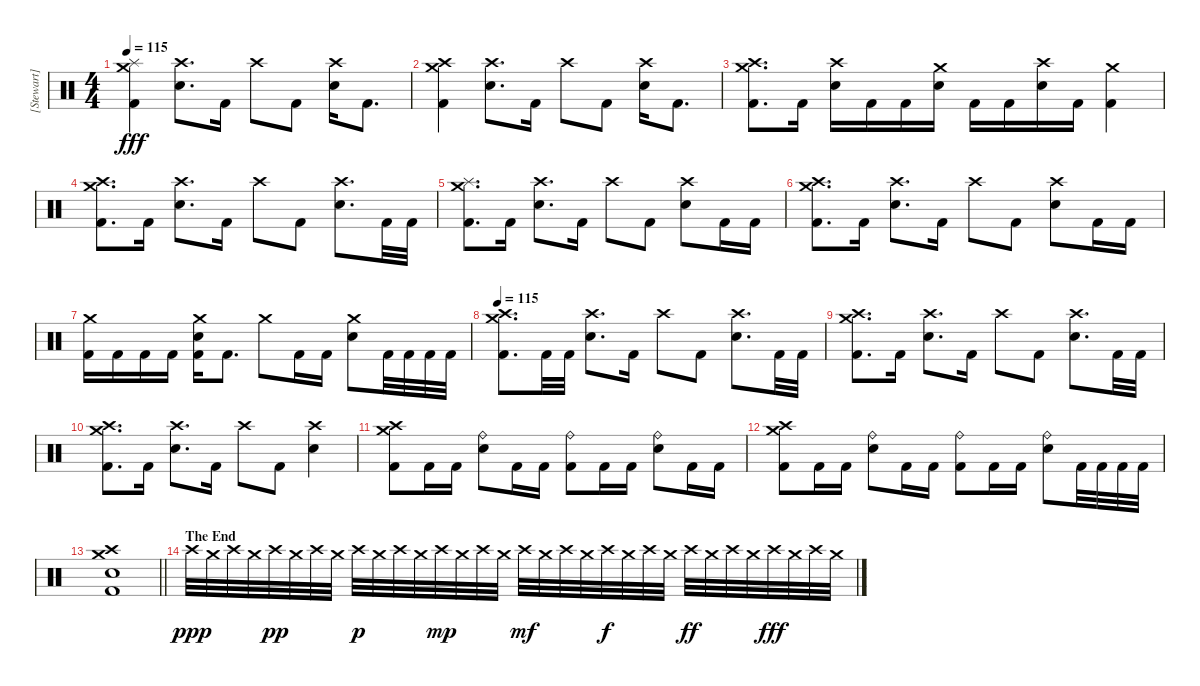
\track ("[Stewart] Drums " "[Stewart] ") {instrument percussion}
\staff {score}
\articulation defaults
\ts (4 4)
\tempo 115
\clef neutral
\ks c
("Crash medium (hit)" "Splash (hit)" "Kick (hit) 2").4{dy fff} ("Crash high (hit)" "Electric Snare (hit)").8{d} "Kick (hit) 2".16 "Crash high (hit)".8 "Kick (hit) 2".8 ("Crash high (hit)" "Electric Snare (hit)").16 "Kick (hit) 2".8{d} |
("Crash medium (hit)" "Crash high (hit)" "Kick (hit) 2").4 ("Crash high (hit)" "Electric Snare (hit)").8{d} "Kick (hit) 2".16 "Crash high (hit)".8 "Kick (hit) 2".8 ("Crash high (hit)" "Electric Snare (hit)").16 "Kick (hit) 2".8{d} |
("Crash medium (hit)" "Crash high (hit)" "Kick (hit) 2").8{d} "Kick (hit) 2".16 ("Crash high (hit)" "Electric Snare (hit)").16 "Kick (hit) 2".16 "Kick (hit) 2".16 ("Crash medium (hit)" "Electric Snare (hit)").16 "Kick (hit) 2".16 "Kick (hit) 2".16 ("Crash high (hit)" "Electric Snare (hit)").16 "Kick (hit) 2".16 ("Crash medium (hit)" "Kick (hit) 2").4 |
("Crash medium (hit)" "Crash high (hit)" "Kick (hit) 2").8{d} "Kick (hit) 2".16 ("Crash high (hit)" "Electric Snare (hit)").8{d} "Kick (hit) 2".16 "Crash high (hit)".8 "Kick (hit) 2".8 ("Crash high (hit)" "Electric Snare (hit)").8{d} "Kick (hit) 2".32 "Kick (hit) 2".32 |
("Crash medium (hit)" "Splash (hit)" "Kick (hit) 2").8{d} "Kick (hit) 2".16 ("Crash high (hit)" "Electric Snare (hit)").8{d} "Kick (hit) 2".16 "Crash high (hit)".8 "Kick (hit) 2".8 ("Crash high (hit)" "Electric Snare (hit)").8 "Kick (hit) 2".16 "Kick (hit) 2".16 |
("Crash medium (hit)" "Crash high (hit)" "Kick (hit) 2").8{d} "Kick (hit) 2".16 ("Crash high (hit)" "Electric Snare (hit)").8{d} "Kick (hit) 2".16 "Crash high (hit)".8 "Kick (hit) 2".8 ("Crash high (hit)" "Electric Snare (hit)").8 "Kick (hit) 2".16 "Kick (hit) 2".16 |
("Crash medium (hit)" "Kick (hit) 2").16 "Kick (hit) 2".16 "Kick (hit) 2".16 "Kick (hit) 2".16 ("Crash medium (hit)" "Electric Snare (hit)" "Kick (hit) 2").16 "Kick (hit) 2".8{d} "Crash medium (hit)".8 "Kick (hit) 2".16 "Kick (hit) 2".16 ("Crash medium (hit)" "Electric Snare (hit)").8 "Kick (hit) 2".32 "Kick (hit) 2".32 "Kick (hit) 2".32 "Kick (hit) 2".32 |
\tempo 115
("Crash medium (hit)" "Crash high (hit)" "Kick (hit) 2").8{d} "Kick (hit) 2".32 "Kick (hit) 2".32 ("Crash high (hit)" "Electric Snare (hit)").8{d} "Kick (hit) 2".16 "Crash high (hit)".8 "Kick (hit) 2".8 ("Crash high (hit)" "Electric Snare (hit)").8{d} "Kick (hit) 2".32 "Kick (hit) 2".32 |
("Crash medium (hit)" "Crash high (hit)" "Kick (hit) 2").8{d} "Kick (hit) 2".16 ("Crash high (hit)" "Electric Snare (hit)").8{d} "Kick (hit) 2".16 "Crash high (hit)".8 "Kick (hit) 2".8 ("Crash high (hit)" "Electric Snare (hit)").8{d} "Kick (hit) 2".32 "Kick (hit) 2".32 |
("Crash medium (hit)" "Crash high (hit)" "Kick (hit) 2").8{d} "Kick (hit) 2".16 ("Crash high (hit)" "Electric Snare (hit)").8{d} "Kick (hit) 2".16 "Crash high (hit)".8 "Kick (hit) 2".8 ("Crash high (hit)" "Electric Snare (hit)").4 |
("Crash medium (hit)" "Crash high (hit)" "Kick (hit) 2").8 "Kick (hit) 2".16 "Kick (hit) 2".16 ("Ride (bell)" "Electric Snare (hit)").8 "Kick (hit) 2".16 "Kick (hit) 2".16 ("Ride (bell)" "Kick (hit) 2").8 "Kick (hit) 2".16 "Kick (hit) 2".16 ("Ride (bell)" "Electric Snare (hit)").8 "Kick (hit) 2".16 "Kick (hit) 2".16 |
("Crash medium (hit)" "Crash high (hit)" "Kick (hit) 2").8 "Kick (hit) 2".16 "Kick (hit) 2".16 ("Ride (bell)" "Electric Snare (hit)").8 "Kick (hit) 2".16 "Kick (hit) 2".16 ("Ride (bell)" "Kick (hit) 2").8 "Kick (hit) 2".16 "Kick (hit) 2".16 ("Ride (bell)" "Electric Snare (hit)").8 "Kick (hit) 2".32 "Kick (hit) 2".32 "Kick (hit) 2".32 "Kick (hit) 2".32 |
\barLineRight lightlight
("Crash medium (hit)" "Crash high (hit)" "Electric Snare (hit)" "Kick (hit) 2").1 |
\section ("" "The End")
"Crash high (hit)".32{dy ppp} "Crash medium (hit)".32 "Crash high (hit)".32 "Crash medium (hit)".32 "Crash high (hit)".32{dy pp} "Crash medium (hit)".32 "Crash high (hit)".32 "Crash medium (hit)".32 "Crash high (hit)".32{dy p} "Crash medium (hit)".32 "Crash high (hit)".32 "Crash medium (hit)".32 "Crash high (hit)".32{dy mp} "Crash medium (hit)".32 "Crash high (hit)".32 "Crash medium (hit)".32 "Crash high (hit)".32{dy mf} "Crash medium (hit)".32 "Crash high (hit)".32 "Crash medium (hit)".32 "Crash high (hit)".32{dy f} "Crash medium (hit)".32 "Crash high (hit)".32 "Crash medium (hit)".32 "Crash high (hit)".32{dy ff} "Crash medium (hit)".32 "Crash high (hit)".32 "Crash medium (hit)".32 "Crash high (hit)".32{dy fff} "Crash medium (hit)".32 "Crash high (hit)".32 "Crash medium (hit)".32
